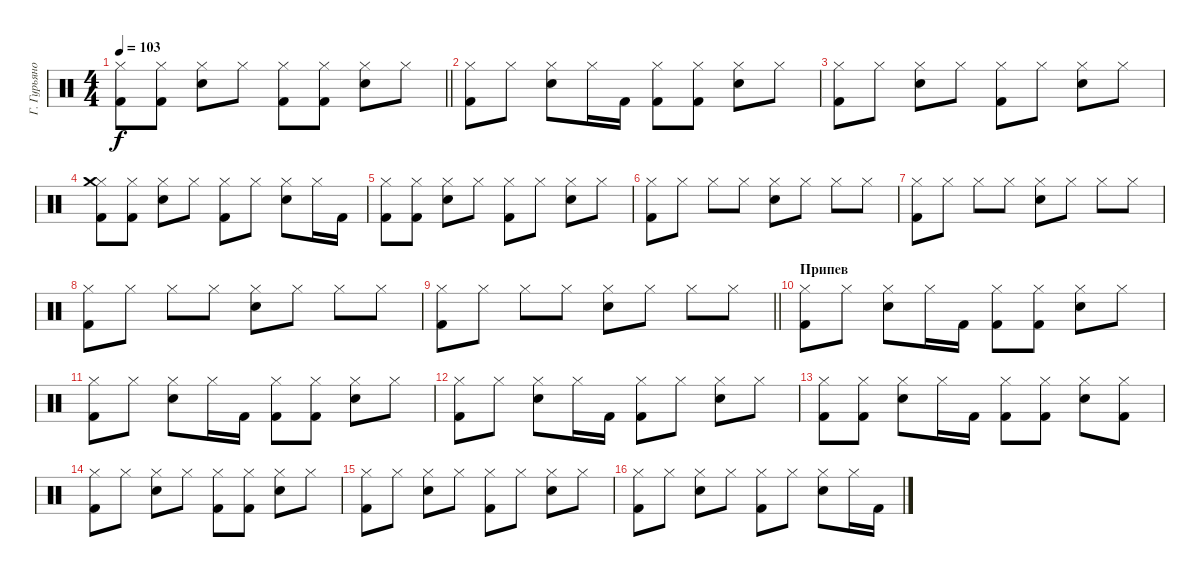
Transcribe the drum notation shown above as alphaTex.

\track ("Г. Гурьянов" "Г. Гурьяно") {instrument percussion}
\staff
\articulation defaults
\ts (4 4)
\tempo 103
\clef neutral
\barLineRight lightlight
\ks c
("Hi-Hat (closed)" "Kick (hit) 2").8{dy f} ("Hi-Hat (closed)" "Kick (hit) 2").8 ("Hi-Hat (closed)" "Snare (hit) 2").8 "Hi-Hat (closed)".8 ("Hi-Hat (closed)" "Kick (hit) 2").8 ("Hi-Hat (closed)" "Kick (hit) 2").8 ("Hi-Hat (closed)" "Snare (hit) 2").8 "Hi-Hat (closed)".8 |
("Hi-Hat (closed)" "Kick (hit) 2").8 "Hi-Hat (closed)".8 ("Hi-Hat (closed)" "Snare (hit) 2").8 "Hi-Hat (closed)".16 "Kick (hit) 2".16 ("Hi-Hat (closed)" "Kick (hit) 2").8 ("Hi-Hat (closed)" "Kick (hit) 2").8 ("Hi-Hat (closed)" "Snare (hit) 2").8 "Hi-Hat (closed)".8 |
("Hi-Hat (closed)" "Kick (hit) 2").8 "Hi-Hat (closed)".8 ("Hi-Hat (closed)" "Snare (hit) 2").8 "Hi-Hat (closed)".8 ("Hi-Hat (closed)" "Kick (hit) 2").8 "Hi-Hat (closed)".8 ("Hi-Hat (closed)" "Snare (hit) 2").8 "Hi-Hat (closed)".8 |
("Hi-Hat (closed)" "Crash medium (hit)" "Kick (hit) 2").8 ("Hi-Hat (closed)" "Kick (hit) 2").8 ("Hi-Hat (closed)" "Snare (hit) 2").8 "Hi-Hat (closed)".8 ("Hi-Hat (closed)" "Kick (hit) 2").8 "Hi-Hat (closed)".8 ("Hi-Hat (closed)" "Snare (hit) 2").8 "Hi-Hat (closed)".16 "Kick (hit) 2".16 |
("Hi-Hat (closed)" "Kick (hit) 2").8 ("Hi-Hat (closed)" "Kick (hit) 2").8 ("Hi-Hat (closed)" "Snare (hit) 2").8 "Hi-Hat (closed)".8 ("Hi-Hat (closed)" "Kick (hit) 2").8 "Hi-Hat (closed)".8 ("Hi-Hat (closed)" "Snare (hit) 2").8 "Hi-Hat (closed)".8 |
("Hi-Hat (closed)" "Kick (hit) 2").8 "Hi-Hat (closed)".8 "Hi-Hat (closed)".8 "Hi-Hat (closed)".8 ("Hi-Hat (closed)" "Snare (hit) 2").8 "Hi-Hat (closed)".8 "Hi-Hat (closed)".8 "Hi-Hat (closed)".8 |
("Hi-Hat (closed)" "Kick (hit) 2").8 "Hi-Hat (closed)".8 "Hi-Hat (closed)".8 "Hi-Hat (closed)".8 ("Hi-Hat (closed)" "Snare (hit) 2").8 "Hi-Hat (closed)".8 "Hi-Hat (closed)".8 "Hi-Hat (closed)".8 |
("Hi-Hat (closed)" "Kick (hit) 2").8 "Hi-Hat (closed)".8 "Hi-Hat (closed)".8 "Hi-Hat (closed)".8 ("Hi-Hat (closed)" "Snare (hit) 2").8 "Hi-Hat (closed)".8 "Hi-Hat (closed)".8 "Hi-Hat (closed)".8 |
\barLineRight lightlight
("Hi-Hat (closed)" "Kick (hit) 2").8 "Hi-Hat (closed)".8 "Hi-Hat (closed)".8 "Hi-Hat (closed)".8 ("Hi-Hat (closed)" "Snare (hit) 2").8 "Hi-Hat (closed)".8 "Hi-Hat (closed)".8 "Hi-Hat (closed)".8 |
\section ("" "Припев")
("Hi-Hat (closed)" "Kick (hit) 2").8 "Hi-Hat (closed)".8 ("Hi-Hat (closed)" "Snare (hit) 2").8 "Hi-Hat (closed)".16 "Kick (hit) 2".16 ("Hi-Hat (closed)" "Kick (hit) 2").8 ("Hi-Hat (closed)" "Kick (hit) 2").8 ("Hi-Hat (closed)" "Snare (hit) 2").8 "Hi-Hat (closed)".8 |
("Hi-Hat (closed)" "Kick (hit) 2").8 "Hi-Hat (closed)".8 ("Hi-Hat (closed)" "Snare (hit) 2").8 "Hi-Hat (closed)".16 "Kick (hit) 2".16 ("Hi-Hat (closed)" "Kick (hit) 2").8 ("Hi-Hat (closed)" "Kick (hit) 2").8 ("Hi-Hat (closed)" "Snare (hit) 2").8 "Hi-Hat (closed)".8 |
("Hi-Hat (closed)" "Kick (hit) 2").8 "Hi-Hat (closed)".8 ("Hi-Hat (closed)" "Snare (hit) 2").8 "Hi-Hat (closed)".16 "Kick (hit) 2".16 ("Hi-Hat (closed)" "Kick (hit) 2").8 "Hi-Hat (closed)".8 ("Hi-Hat (closed)" "Snare (hit) 2").8 "Hi-Hat (closed)".8 |
("Hi-Hat (closed)" "Kick (hit) 2").8 ("Hi-Hat (closed)" "Kick (hit) 2").8 ("Hi-Hat (closed)" "Snare (hit) 2").8 "Hi-Hat (closed)".16 "Kick (hit) 2".16 ("Hi-Hat (closed)" "Kick (hit) 2").8 ("Hi-Hat (closed)" "Kick (hit) 2").8 ("Hi-Hat (closed)" "Snare (hit) 2").8 ("Hi-Hat (closed)" "Kick (hit) 2").8 |
("Hi-Hat (closed)" "Kick (hit) 2").8 "Hi-Hat (closed)".8 ("Hi-Hat (closed)" "Snare (hit) 2").8 "Hi-Hat (closed)".8 ("Hi-Hat (closed)" "Kick (hit) 2").8 ("Hi-Hat (closed)" "Kick (hit) 2").8 ("Hi-Hat (closed)" "Snare (hit) 2").8 "Hi-Hat (closed)".8 |
("Hi-Hat (closed)" "Kick (hit) 2").8 "Hi-Hat (closed)".8 ("Hi-Hat (closed)" "Snare (hit) 2").8 "Hi-Hat (closed)".8 ("Hi-Hat (closed)" "Kick (hit) 2").8 "Hi-Hat (closed)".8 ("Hi-Hat (closed)" "Snare (hit) 2").8 "Hi-Hat (closed)".8 |
("Hi-Hat (closed)" "Kick (hit) 2").8 "Hi-Hat (closed)".8 ("Hi-Hat (closed)" "Snare (hit) 2").8 "Hi-Hat (closed)".8 ("Hi-Hat (closed)" "Kick (hit) 2").8 "Hi-Hat (closed)".8 ("Hi-Hat (closed)" "Snare (hit) 2").8 "Hi-Hat (closed)".16 "Kick (hit) 2".16
